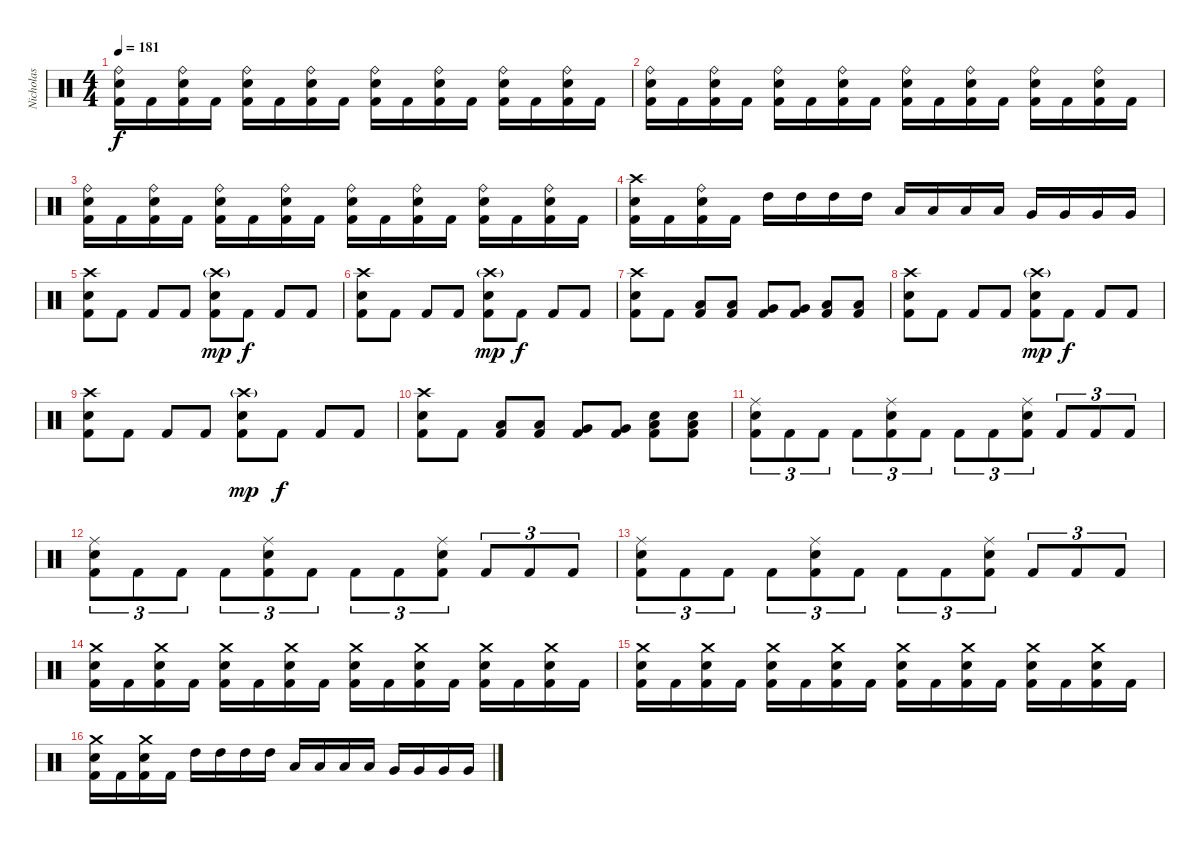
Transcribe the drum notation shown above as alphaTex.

\track ("Nicholas" "Nicholas") {instrument percussion}
\staff {score}
\articulation defaults
\ts (4 4)
\tempo 181
\clef neutral
\ks c
("Ride (bell)" "Electric Snare (hit)" "Kick (hit) 2").16{dy f} "Kick (hit) 2".16 ("Ride (bell)" "Electric Snare (hit)" "Kick (hit) 2").16 "Kick (hit) 2".16 ("Ride (bell)" "Electric Snare (hit)" "Kick (hit) 2").16 "Kick (hit) 2".16 ("Ride (bell)" "Electric Snare (hit)" "Kick (hit) 2").16 "Kick (hit) 2".16 ("Ride (bell)" "Electric Snare (hit)" "Kick (hit) 2").16 "Kick (hit) 2".16 ("Ride (bell)" "Electric Snare (hit)" "Kick (hit) 2").16 "Kick (hit) 2".16 ("Ride (bell)" "Electric Snare (hit)" "Kick (hit) 2").16 "Kick (hit) 2".16 ("Ride (bell)" "Electric Snare (hit)" "Kick (hit) 2").16 "Kick (hit) 2".16 |
("Ride (bell)" "Electric Snare (hit)" "Kick (hit) 2").16 "Kick (hit) 2".16 ("Ride (bell)" "Electric Snare (hit)" "Kick (hit) 2").16 "Kick (hit) 2".16 ("Ride (bell)" "Electric Snare (hit)" "Kick (hit) 2").16 "Kick (hit) 2".16 ("Ride (bell)" "Electric Snare (hit)" "Kick (hit) 2").16 "Kick (hit) 2".16 ("Ride (bell)" "Electric Snare (hit)" "Kick (hit) 2").16 "Kick (hit) 2".16 ("Ride (bell)" "Electric Snare (hit)" "Kick (hit) 2").16 "Kick (hit) 2".16 ("Ride (bell)" "Electric Snare (hit)" "Kick (hit) 2").16 "Kick (hit) 2".16 ("Ride (bell)" "Electric Snare (hit)" "Kick (hit) 2").16 "Kick (hit) 2".16 |
("Ride (bell)" "Electric Snare (hit)" "Kick (hit) 2").16 "Kick (hit) 2".16 ("Ride (bell)" "Electric Snare (hit)" "Kick (hit) 2").16 "Kick (hit) 2".16 ("Ride (bell)" "Electric Snare (hit)" "Kick (hit) 2").16 "Kick (hit) 2".16 ("Ride (bell)" "Electric Snare (hit)" "Kick (hit) 2").16 "Kick (hit) 2".16 ("Ride (bell)" "Electric Snare (hit)" "Kick (hit) 2").16 "Kick (hit) 2".16 ("Ride (bell)" "Electric Snare (hit)" "Kick (hit) 2").16 "Kick (hit) 2".16 ("Ride (bell)" "Electric Snare (hit)" "Kick (hit) 2").16 "Kick (hit) 2".16 ("Ride (bell)" "Electric Snare (hit)" "Kick (hit) 2").16 "Kick (hit) 2".16 |
("Crash high (hit)" "Electric Snare (hit)" "Kick (hit) 2").16 "Kick (hit) 2".16 ("Ride (bell)" "Electric Snare (hit)" "Kick (hit) 2").16 "Kick (hit) 2".16 "High Tom (hit)".16 "High Tom (hit)".16 "High Tom (hit)".16 "High Tom (hit)".16 "Low Tom (hit)".16 "Low Tom (hit)".16 "Low Tom (hit)".16 "Low Tom (hit)".16 "Very Low Tom (hit)".16 "Very Low Tom (hit)".16 "Very Low Tom (hit)".16 "Very Low Tom (hit)".16 |
("Crash high (hit)" "Electric Snare (hit)" "Kick (hit) 2").8 "Kick (hit) 2".8 "Kick (hit) 2".8 "Kick (hit) 2".8 ("Crash high (hit)"{g} "Electric Snare (hit)" "Kick (hit) 2").8{dy mp} "Kick (hit) 2".8{dy f} "Kick (hit) 2".8 "Kick (hit) 2".8 |
("Crash high (hit)" "Electric Snare (hit)" "Kick (hit) 2").8 "Kick (hit) 2".8 "Kick (hit) 2".8 "Kick (hit) 2".8 ("Crash high (hit)"{g} "Electric Snare (hit)" "Kick (hit) 2").8{dy mp} "Kick (hit) 2".8{dy f} "Kick (hit) 2".8 "Kick (hit) 2".8 |
("Crash high (hit)" "Electric Snare (hit)" "Kick (hit) 2").8 "Kick (hit) 2".8 ("Low Tom (hit)" "Kick (hit) 2").8 ("Low Tom (hit)" "Kick (hit) 2").8 ("Very Low Tom (hit)" "Kick (hit) 2").8 ("Very Low Tom (hit)" "Kick (hit) 2").8 ("Low Floor Tom (hit)" "Kick (hit) 2").8 ("Low Floor Tom (hit)" "Kick (hit) 2").8 |
("Crash high (hit)" "Electric Snare (hit)" "Kick (hit) 2").8 "Kick (hit) 2".8 "Kick (hit) 2".8 "Kick (hit) 2".8 ("Crash high (hit)"{g} "Electric Snare (hit)" "Kick (hit) 2").8{dy mp} "Kick (hit) 2".8{dy f} "Kick (hit) 2".8 "Kick (hit) 2".8 |
("Crash high (hit)" "Electric Snare (hit)" "Kick (hit) 2").8 "Kick (hit) 2".8 "Kick (hit) 2".8 "Kick (hit) 2".8 ("Crash high (hit)"{g} "Electric Snare (hit)" "Kick (hit) 2").8{dy mp} "Kick (hit) 2".8{dy f} "Kick (hit) 2".8 "Kick (hit) 2".8 |
("Crash high (hit)" "Electric Snare (hit)" "Kick (hit) 2").8 "Kick (hit) 2".8 ("Low Tom (hit)" "Kick (hit) 2").8 ("Low Tom (hit)" "Kick (hit) 2").8 ("Very Low Tom (hit)" "Kick (hit) 2").8 ("Very Low Tom (hit)" "Kick (hit) 2").8 ("Low Floor Tom (hit)" "Electric Snare (hit)" "Kick (hit) 2").8 ("Low Floor Tom (hit)" "Electric Snare (hit)" "Kick (hit) 2").8 |
("Ride (middle)" "Electric Snare (hit)" "Kick (hit) 2").8{tu (3 2)} "Kick (hit) 2".8{tu (3 2)} "Kick (hit) 2".8{tu (3 2)} "Kick (hit) 2".8{tu (3 2)} ("Ride (middle)" "Electric Snare (hit)" "Kick (hit) 2").8{tu (3 2)} "Kick (hit) 2".8{tu (3 2)} "Kick (hit) 2".8{tu (3 2)} "Kick (hit) 2".8{tu (3 2)} ("Ride (middle)" "Electric Snare (hit)" "Kick (hit) 2").8{tu (3 2)} "Kick (hit) 2".8{tu (3 2)} "Kick (hit) 2".8{tu (3 2)} "Kick (hit) 2".8{tu (3 2)} |
("Ride (middle)" "Electric Snare (hit)" "Kick (hit) 2").8{tu (3 2)} "Kick (hit) 2".8{tu (3 2)} "Kick (hit) 2".8{tu (3 2)} "Kick (hit) 2".8{tu (3 2)} ("Ride (middle)" "Electric Snare (hit)" "Kick (hit) 2").8{tu (3 2)} "Kick (hit) 2".8{tu (3 2)} "Kick (hit) 2".8{tu (3 2)} "Kick (hit) 2".8{tu (3 2)} ("Ride (middle)" "Electric Snare (hit)" "Kick (hit) 2").8{tu (3 2)} "Kick (hit) 2".8{tu (3 2)} "Kick (hit) 2".8{tu (3 2)} "Kick (hit) 2".8{tu (3 2)} |
("Ride (middle)" "Electric Snare (hit)" "Kick (hit) 2").8{tu (3 2)} "Kick (hit) 2".8{tu (3 2)} "Kick (hit) 2".8{tu (3 2)} "Kick (hit) 2".8{tu (3 2)} ("Ride (middle)" "Electric Snare (hit)" "Kick (hit) 2").8{tu (3 2)} "Kick (hit) 2".8{tu (3 2)} "Kick (hit) 2".8{tu (3 2)} "Kick (hit) 2".8{tu (3 2)} ("Ride (middle)" "Electric Snare (hit)" "Kick (hit) 2").8{tu (3 2)} "Kick (hit) 2".8{tu (3 2)} "Kick (hit) 2".8{tu (3 2)} "Kick (hit) 2".8{tu (3 2)} |
("Crash medium (hit)" "Electric Snare (hit)" "Kick (hit) 2").16 "Kick (hit) 2".16 ("Crash medium (hit)" "Electric Snare (hit)" "Kick (hit) 2").16 "Kick (hit) 2".16 ("Crash medium (hit)" "Electric Snare (hit)" "Kick (hit) 2").16 "Kick (hit) 2".16 ("Crash medium (hit)" "Electric Snare (hit)" "Kick (hit) 2").16 "Kick (hit) 2".16 ("Crash medium (hit)" "Electric Snare (hit)" "Kick (hit) 2").16 "Kick (hit) 2".16 ("Crash medium (hit)" "Electric Snare (hit)" "Kick (hit) 2").16 "Kick (hit) 2".16 ("Crash medium (hit)" "Electric Snare (hit)" "Kick (hit) 2").16 "Kick (hit) 2".16 ("Crash medium (hit)" "Electric Snare (hit)" "Kick (hit) 2").16 "Kick (hit) 2".16 |
("Crash medium (hit)" "Electric Snare (hit)" "Kick (hit) 2").16 "Kick (hit) 2".16 ("Crash medium (hit)" "Electric Snare (hit)" "Kick (hit) 2").16 "Kick (hit) 2".16 ("Crash medium (hit)" "Electric Snare (hit)" "Kick (hit) 2").16 "Kick (hit) 2".16 ("Crash medium (hit)" "Electric Snare (hit)" "Kick (hit) 2").16 "Kick (hit) 2".16 ("Crash medium (hit)" "Electric Snare (hit)" "Kick (hit) 2").16 "Kick (hit) 2".16 ("Crash medium (hit)" "Electric Snare (hit)" "Kick (hit) 2").16 "Kick (hit) 2".16 ("Crash medium (hit)" "Electric Snare (hit)" "Kick (hit) 2").16 "Kick (hit) 2".16 ("Crash medium (hit)" "Electric Snare (hit)" "Kick (hit) 2").16 "Kick (hit) 2".16 |
("Crash medium (hit)" "Electric Snare (hit)" "Kick (hit) 2").16 "Kick (hit) 2".16 ("Crash medium (hit)" "Electric Snare (hit)" "Kick (hit) 2").16 "Kick (hit) 2".16 "High Tom (hit)".16 "High Tom (hit)".16 "High Tom (hit)".16 "High Tom (hit)".16 "Low Tom (hit)".16 "Low Tom (hit)".16 "Low Tom (hit)".16 "Low Tom (hit)".16 "Very Low Tom (hit)".16 "Very Low Tom (hit)".16 "Very Low Tom (hit)".16 "Very Low Tom (hit)".16
